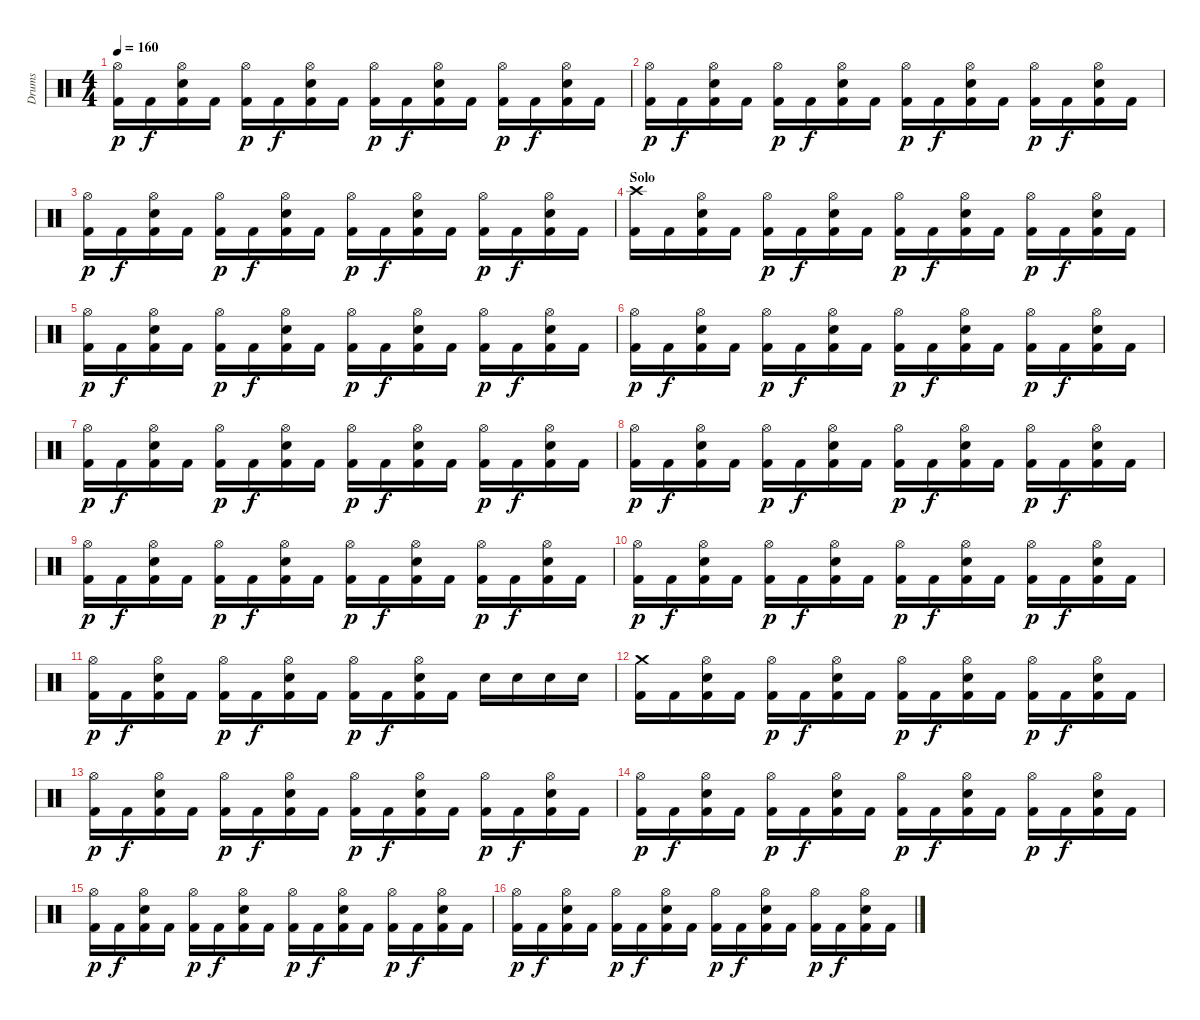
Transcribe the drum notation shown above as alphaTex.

\track ("Drums" "Drums") {instrument percussion}
\staff {score}
\articulation defaults
\ts (4 4)
\tempo 160
\clef neutral
\ks c
("Hi-Hat (open)" "Kick (hit) 2").16{dy p} "Kick (hit) 2".16{dy f} ("Hi-Hat (open)" "Electric Snare (hit)" "Kick (hit) 2").16 "Kick (hit) 2".16 ("Hi-Hat (open)" "Kick (hit) 2").16{dy p} "Kick (hit) 2".16{dy f} ("Hi-Hat (open)" "Electric Snare (hit)" "Kick (hit) 2").16 "Kick (hit) 2".16 ("Hi-Hat (open)" "Kick (hit) 2").16{dy p} "Kick (hit) 2".16{dy f} ("Hi-Hat (open)" "Electric Snare (hit)" "Kick (hit) 2").16 "Kick (hit) 2".16 ("Hi-Hat (open)" "Kick (hit) 2").16{dy p} "Kick (hit) 2".16{dy f} ("Hi-Hat (open)" "Electric Snare (hit)" "Kick (hit) 2").16 "Kick (hit) 2".16 |
("Hi-Hat (open)" "Kick (hit) 2").16{dy p} "Kick (hit) 2".16{dy f} ("Hi-Hat (open)" "Electric Snare (hit)" "Kick (hit) 2").16 "Kick (hit) 2".16 ("Hi-Hat (open)" "Kick (hit) 2").16{dy p} "Kick (hit) 2".16{dy f} ("Hi-Hat (open)" "Electric Snare (hit)" "Kick (hit) 2").16 "Kick (hit) 2".16 ("Hi-Hat (open)" "Kick (hit) 2").16{dy p} "Kick (hit) 2".16{dy f} ("Hi-Hat (open)" "Electric Snare (hit)" "Kick (hit) 2").16 "Kick (hit) 2".16 ("Hi-Hat (open)" "Kick (hit) 2").16{dy p} "Kick (hit) 2".16{dy f} ("Hi-Hat (open)" "Electric Snare (hit)" "Kick (hit) 2").16 "Kick (hit) 2".16 |
("Hi-Hat (open)" "Kick (hit) 2").16{dy p} "Kick (hit) 2".16{dy f} ("Hi-Hat (open)" "Electric Snare (hit)" "Kick (hit) 2").16 "Kick (hit) 2".16 ("Hi-Hat (open)" "Kick (hit) 2").16{dy p} "Kick (hit) 2".16{dy f} ("Hi-Hat (open)" "Electric Snare (hit)" "Kick (hit) 2").16 "Kick (hit) 2".16 ("Hi-Hat (open)" "Kick (hit) 2").16{dy p} "Kick (hit) 2".16{dy f} ("Hi-Hat (open)" "Electric Snare (hit)" "Kick (hit) 2").16 "Kick (hit) 2".16 ("Hi-Hat (open)" "Kick (hit) 2").16{dy p} "Kick (hit) 2".16{dy f} ("Hi-Hat (open)" "Electric Snare (hit)" "Kick (hit) 2").16 "Kick (hit) 2".16 |
\section ("" "Solo")
("Crash high (hit)" "Kick (hit) 2").16 "Kick (hit) 2".16 ("Hi-Hat (open)" "Electric Snare (hit)" "Kick (hit) 2").16 "Kick (hit) 2".16 ("Hi-Hat (open)" "Kick (hit) 2").16{dy p} "Kick (hit) 2".16{dy f} ("Hi-Hat (open)" "Electric Snare (hit)" "Kick (hit) 2").16 "Kick (hit) 2".16 ("Hi-Hat (open)" "Kick (hit) 2").16{dy p} "Kick (hit) 2".16{dy f} ("Hi-Hat (open)" "Electric Snare (hit)" "Kick (hit) 2").16 "Kick (hit) 2".16 ("Hi-Hat (open)" "Kick (hit) 2").16{dy p} "Kick (hit) 2".16{dy f} ("Hi-Hat (open)" "Electric Snare (hit)" "Kick (hit) 2").16 "Kick (hit) 2".16 |
("Hi-Hat (open)" "Kick (hit) 2").16{dy p} "Kick (hit) 2".16{dy f} ("Hi-Hat (open)" "Electric Snare (hit)" "Kick (hit) 2").16 "Kick (hit) 2".16 ("Hi-Hat (open)" "Kick (hit) 2").16{dy p} "Kick (hit) 2".16{dy f} ("Hi-Hat (open)" "Electric Snare (hit)" "Kick (hit) 2").16 "Kick (hit) 2".16 ("Hi-Hat (open)" "Kick (hit) 2").16{dy p} "Kick (hit) 2".16{dy f} ("Hi-Hat (open)" "Electric Snare (hit)" "Kick (hit) 2").16 "Kick (hit) 2".16 ("Hi-Hat (open)" "Kick (hit) 2").16{dy p} "Kick (hit) 2".16{dy f} ("Hi-Hat (open)" "Electric Snare (hit)" "Kick (hit) 2").16 "Kick (hit) 2".16 |
("Hi-Hat (open)" "Kick (hit) 2").16{dy p} "Kick (hit) 2".16{dy f} ("Hi-Hat (open)" "Electric Snare (hit)" "Kick (hit) 2").16 "Kick (hit) 2".16 ("Hi-Hat (open)" "Kick (hit) 2").16{dy p} "Kick (hit) 2".16{dy f} ("Hi-Hat (open)" "Electric Snare (hit)" "Kick (hit) 2").16 "Kick (hit) 2".16 ("Hi-Hat (open)" "Kick (hit) 2").16{dy p} "Kick (hit) 2".16{dy f} ("Hi-Hat (open)" "Electric Snare (hit)" "Kick (hit) 2").16 "Kick (hit) 2".16 ("Hi-Hat (open)" "Kick (hit) 2").16{dy p} "Kick (hit) 2".16{dy f} ("Hi-Hat (open)" "Electric Snare (hit)" "Kick (hit) 2").16 "Kick (hit) 2".16 |
("Hi-Hat (open)" "Kick (hit) 2").16{dy p} "Kick (hit) 2".16{dy f} ("Hi-Hat (open)" "Electric Snare (hit)" "Kick (hit) 2").16 "Kick (hit) 2".16 ("Hi-Hat (open)" "Kick (hit) 2").16{dy p} "Kick (hit) 2".16{dy f} ("Hi-Hat (open)" "Electric Snare (hit)" "Kick (hit) 2").16 "Kick (hit) 2".16 ("Hi-Hat (open)" "Kick (hit) 2").16{dy p} "Kick (hit) 2".16{dy f} ("Hi-Hat (open)" "Electric Snare (hit)" "Kick (hit) 2").16 "Kick (hit) 2".16 ("Hi-Hat (open)" "Kick (hit) 2").16{dy p} "Kick (hit) 2".16{dy f} ("Hi-Hat (open)" "Electric Snare (hit)" "Kick (hit) 2").16 "Kick (hit) 2".16 |
("Hi-Hat (open)" "Kick (hit) 2").16{dy p} "Kick (hit) 2".16{dy f} ("Hi-Hat (open)" "Electric Snare (hit)" "Kick (hit) 2").16 "Kick (hit) 2".16 ("Hi-Hat (open)" "Kick (hit) 2").16{dy p} "Kick (hit) 2".16{dy f} ("Hi-Hat (open)" "Electric Snare (hit)" "Kick (hit) 2").16 "Kick (hit) 2".16 ("Hi-Hat (open)" "Kick (hit) 2").16{dy p} "Kick (hit) 2".16{dy f} ("Hi-Hat (open)" "Electric Snare (hit)" "Kick (hit) 2").16 "Kick (hit) 2".16 ("Hi-Hat (open)" "Kick (hit) 2").16{dy p} "Kick (hit) 2".16{dy f} ("Hi-Hat (open)" "Electric Snare (hit)" "Kick (hit) 2").16 "Kick (hit) 2".16 |
("Hi-Hat (open)" "Kick (hit) 2").16{dy p} "Kick (hit) 2".16{dy f} ("Hi-Hat (open)" "Electric Snare (hit)" "Kick (hit) 2").16 "Kick (hit) 2".16 ("Hi-Hat (open)" "Kick (hit) 2").16{dy p} "Kick (hit) 2".16{dy f} ("Hi-Hat (open)" "Electric Snare (hit)" "Kick (hit) 2").16 "Kick (hit) 2".16 ("Hi-Hat (open)" "Kick (hit) 2").16{dy p} "Kick (hit) 2".16{dy f} ("Hi-Hat (open)" "Electric Snare (hit)" "Kick (hit) 2").16 "Kick (hit) 2".16 ("Hi-Hat (open)" "Kick (hit) 2").16{dy p} "Kick (hit) 2".16{dy f} ("Hi-Hat (open)" "Electric Snare (hit)" "Kick (hit) 2").16 "Kick (hit) 2".16 |
("Hi-Hat (open)" "Kick (hit) 2").16{dy p} "Kick (hit) 2".16{dy f} ("Hi-Hat (open)" "Electric Snare (hit)" "Kick (hit) 2").16 "Kick (hit) 2".16 ("Hi-Hat (open)" "Kick (hit) 2").16{dy p} "Kick (hit) 2".16{dy f} ("Hi-Hat (open)" "Electric Snare (hit)" "Kick (hit) 2").16 "Kick (hit) 2".16 ("Hi-Hat (open)" "Kick (hit) 2").16{dy p} "Kick (hit) 2".16{dy f} ("Hi-Hat (open)" "Electric Snare (hit)" "Kick (hit) 2").16 "Kick (hit) 2".16 ("Hi-Hat (open)" "Kick (hit) 2").16{dy p} "Kick (hit) 2".16{dy f} ("Hi-Hat (open)" "Electric Snare (hit)" "Kick (hit) 2").16 "Kick (hit) 2".16 |
("Hi-Hat (open)" "Kick (hit) 2").16{dy p} "Kick (hit) 2".16{dy f} ("Hi-Hat (open)" "Electric Snare (hit)" "Kick (hit) 2").16 "Kick (hit) 2".16 ("Hi-Hat (open)" "Kick (hit) 2").16{dy p} "Kick (hit) 2".16{dy f} ("Hi-Hat (open)" "Electric Snare (hit)" "Kick (hit) 2").16 "Kick (hit) 2".16 ("Hi-Hat (open)" "Kick (hit) 2").16{dy p} "Kick (hit) 2".16{dy f} ("Hi-Hat (open)" "Electric Snare (hit)" "Kick (hit) 2").16 "Kick (hit) 2".16 "Electric Snare (hit)".16 "Electric Snare (hit)".16 "Electric Snare (hit)".16 "Electric Snare (hit)".16 |
("Crash medium (hit)" "Kick (hit) 2").16 "Kick (hit) 2".16 ("Hi-Hat (open)" "Electric Snare (hit)" "Kick (hit) 2").16 "Kick (hit) 2".16 ("Hi-Hat (open)" "Kick (hit) 2").16{dy p} "Kick (hit) 2".16{dy f} ("Hi-Hat (open)" "Electric Snare (hit)" "Kick (hit) 2").16 "Kick (hit) 2".16 ("Hi-Hat (open)" "Kick (hit) 2").16{dy p} "Kick (hit) 2".16{dy f} ("Hi-Hat (open)" "Electric Snare (hit)" "Kick (hit) 2").16 "Kick (hit) 2".16 ("Hi-Hat (open)" "Kick (hit) 2").16{dy p} "Kick (hit) 2".16{dy f} ("Hi-Hat (open)" "Electric Snare (hit)" "Kick (hit) 2").16 "Kick (hit) 2".16 |
("Hi-Hat (open)" "Kick (hit) 2").16{dy p} "Kick (hit) 2".16{dy f} ("Hi-Hat (open)" "Electric Snare (hit)" "Kick (hit) 2").16 "Kick (hit) 2".16 ("Hi-Hat (open)" "Kick (hit) 2").16{dy p} "Kick (hit) 2".16{dy f} ("Hi-Hat (open)" "Electric Snare (hit)" "Kick (hit) 2").16 "Kick (hit) 2".16 ("Hi-Hat (open)" "Kick (hit) 2").16{dy p} "Kick (hit) 2".16{dy f} ("Hi-Hat (open)" "Electric Snare (hit)" "Kick (hit) 2").16 "Kick (hit) 2".16 ("Hi-Hat (open)" "Kick (hit) 2").16{dy p} "Kick (hit) 2".16{dy f} ("Hi-Hat (open)" "Electric Snare (hit)" "Kick (hit) 2").16 "Kick (hit) 2".16 |
("Hi-Hat (open)" "Kick (hit) 2").16{dy p} "Kick (hit) 2".16{dy f} ("Hi-Hat (open)" "Electric Snare (hit)" "Kick (hit) 2").16 "Kick (hit) 2".16 ("Hi-Hat (open)" "Kick (hit) 2").16{dy p} "Kick (hit) 2".16{dy f} ("Hi-Hat (open)" "Electric Snare (hit)" "Kick (hit) 2").16 "Kick (hit) 2".16 ("Hi-Hat (open)" "Kick (hit) 2").16{dy p} "Kick (hit) 2".16{dy f} ("Hi-Hat (open)" "Electric Snare (hit)" "Kick (hit) 2").16 "Kick (hit) 2".16 ("Hi-Hat (open)" "Kick (hit) 2").16{dy p} "Kick (hit) 2".16{dy f} ("Hi-Hat (open)" "Electric Snare (hit)" "Kick (hit) 2").16 "Kick (hit) 2".16 |
("Hi-Hat (open)" "Kick (hit) 2").16{dy p} "Kick (hit) 2".16{dy f} ("Hi-Hat (open)" "Electric Snare (hit)" "Kick (hit) 2").16 "Kick (hit) 2".16 ("Hi-Hat (open)" "Kick (hit) 2").16{dy p} "Kick (hit) 2".16{dy f} ("Hi-Hat (open)" "Electric Snare (hit)" "Kick (hit) 2").16 "Kick (hit) 2".16 ("Hi-Hat (open)" "Kick (hit) 2").16{dy p} "Kick (hit) 2".16{dy f} ("Hi-Hat (open)" "Electric Snare (hit)" "Kick (hit) 2").16 "Kick (hit) 2".16 ("Hi-Hat (open)" "Kick (hit) 2").16{dy p} "Kick (hit) 2".16{dy f} ("Hi-Hat (open)" "Electric Snare (hit)" "Kick (hit) 2").16 "Kick (hit) 2".16 |
("Hi-Hat (open)" "Kick (hit) 2").16{dy p} "Kick (hit) 2".16{dy f} ("Hi-Hat (open)" "Electric Snare (hit)" "Kick (hit) 2").16 "Kick (hit) 2".16 ("Hi-Hat (open)" "Kick (hit) 2").16{dy p} "Kick (hit) 2".16{dy f} ("Hi-Hat (open)" "Electric Snare (hit)" "Kick (hit) 2").16 "Kick (hit) 2".16 ("Hi-Hat (open)" "Kick (hit) 2").16{dy p} "Kick (hit) 2".16{dy f} ("Hi-Hat (open)" "Electric Snare (hit)" "Kick (hit) 2").16 "Kick (hit) 2".16 ("Hi-Hat (open)" "Kick (hit) 2").16{dy p} "Kick (hit) 2".16{dy f} ("Hi-Hat (open)" "Electric Snare (hit)" "Kick (hit) 2").16 "Kick (hit) 2".16
